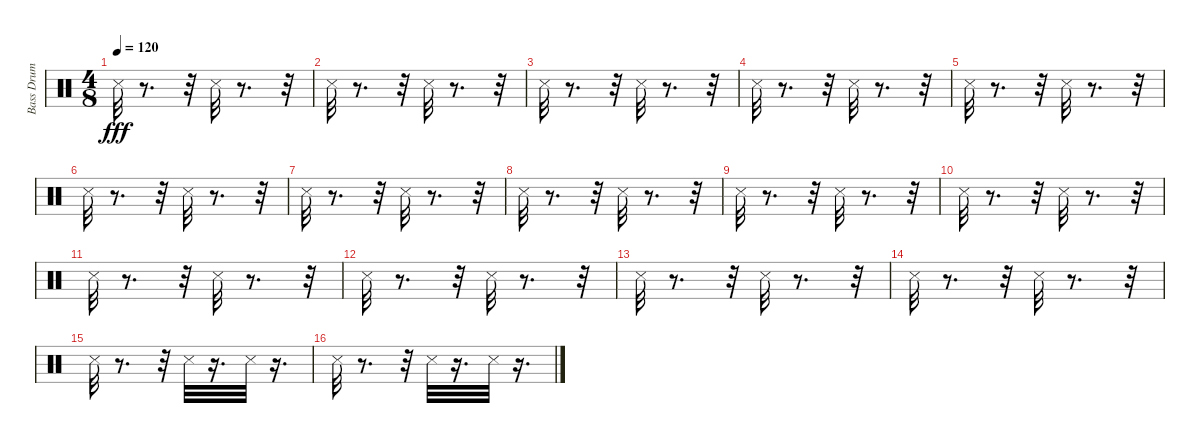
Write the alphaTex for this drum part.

\track ("Bass Drum" "Bass Drum") {instrument percussion}
\staff {score}
\articulation defaults
\ts (4 8)
\tempo 120
\clef neutral
\ks c "Metronome (hit)".32{dy fff}
r.8{d} r.32 "Metronome (hit)".32 r.8{d} r.32 |
"Metronome (hit)".32 r.8{d} r.32 "Metronome (hit)".32 r.8{d} r.32 |
"Metronome (hit)".32 r.8{d} r.32 "Metronome (hit)".32 r.8{d} r.32 |
"Metronome (hit)".32 r.8{d} r.32 "Metronome (hit)".32 r.8{d} r.32 |
"Metronome (hit)".32 r.8{d} r.32 "Metronome (hit)".32 r.8{d} r.32 |
"Metronome (hit)".32 r.8{d} r.32 "Metronome (hit)".32 r.8{d} r.32 |
"Metronome (hit)".32 r.8{d} r.32 "Metronome (hit)".32 r.8{d} r.32 |
"Metronome (hit)".32 r.8{d} r.32 "Metronome (hit)".32 r.8{d} r.32 |
"Metronome (hit)".32 r.8{d} r.32 "Metronome (hit)".32 r.8{d} r.32 |
"Metronome (hit)".32 r.8{d} r.32 "Metronome (hit)".32 r.8{d} r.32 |
"Metronome (hit)".32 r.8{d} r.32 "Metronome (hit)".32 r.8{d} r.32 |
"Metronome (hit)".32 r.8{d} r.32 "Metronome (hit)".32 r.8{d} r.32 |
"Metronome (hit)".32 r.8{d} r.32 "Metronome (hit)".32 r.8{d} r.32 |
"Metronome (hit)".32 r.8{d} r.32 "Metronome (hit)".32 r.8{d} r.32 |
"Metronome (hit)".32 r.8{d} r.32 "Metronome (hit)".32 r.16{d} "Metronome (hit)".32 r.16{d} |
"Metronome (hit)".32 r.8{d} r.32 "Metronome (hit)".32 r.16{d} "Metronome (hit)".32 r.16{d}
